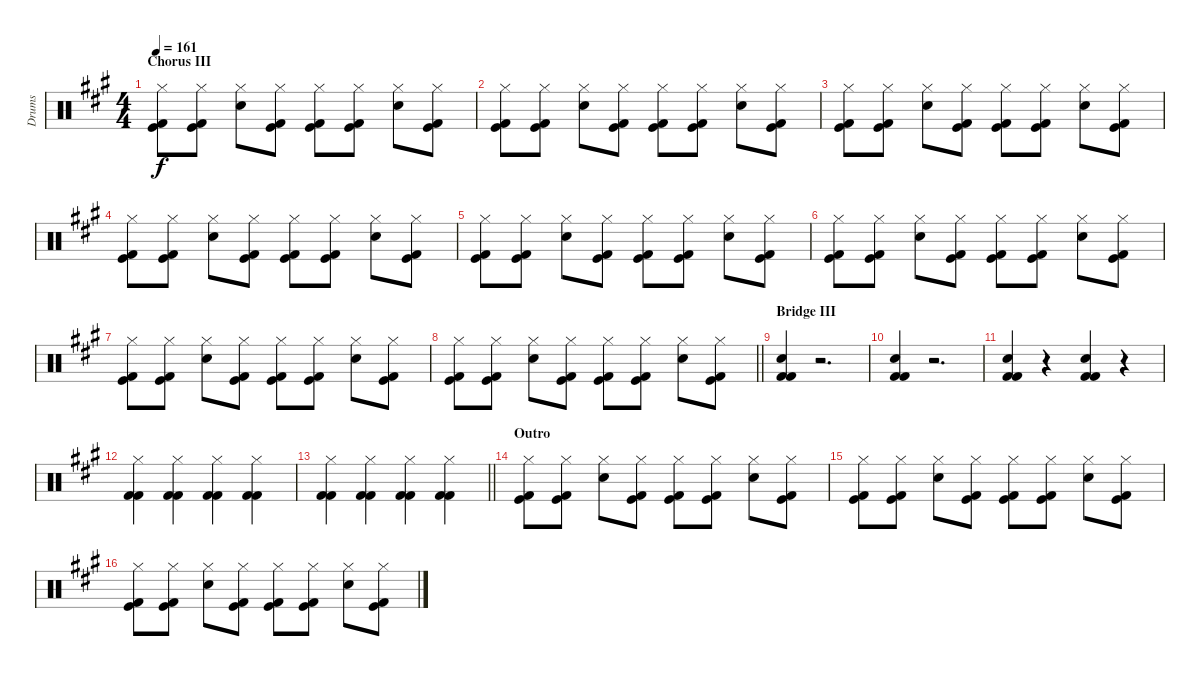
\track ("Drums" "Drums") {instrument percussion}
\staff {score}
\articulation defaults
\ts (4 4)
\section ("" "Chorus III")
\tempo 161
\clef neutral
\ks a
("Hi-Hat (closed)" "Kick (hit)" "Kick (hit) 2").8{dy f} ("Hi-Hat (closed)" "Kick (hit)" "Kick (hit) 2").8 ("Hi-Hat (closed)" "Snare (hit) 2").8 ("Hi-Hat (closed)" "Kick (hit)" "Kick (hit) 2").8 ("Hi-Hat (closed)" "Kick (hit)" "Kick (hit) 2").8 ("Hi-Hat (closed)" "Kick (hit)" "Kick (hit) 2").8 ("Hi-Hat (closed)" "Snare (hit) 2").8 ("Hi-Hat (closed)" "Kick (hit)" "Kick (hit) 2").8 |
("Hi-Hat (closed)" "Kick (hit)" "Kick (hit) 2").8 ("Hi-Hat (closed)" "Kick (hit)" "Kick (hit) 2").8 ("Hi-Hat (closed)" "Snare (hit) 2").8 ("Hi-Hat (closed)" "Kick (hit)" "Kick (hit) 2").8 ("Hi-Hat (closed)" "Kick (hit)" "Kick (hit) 2").8 ("Hi-Hat (closed)" "Kick (hit)" "Kick (hit) 2").8 ("Hi-Hat (closed)" "Snare (hit) 2").8 ("Hi-Hat (closed)" "Kick (hit)" "Kick (hit) 2").8 |
("Hi-Hat (closed)" "Kick (hit)" "Kick (hit) 2").8 ("Hi-Hat (closed)" "Kick (hit)" "Kick (hit) 2").8 ("Hi-Hat (closed)" "Snare (hit) 2").8 ("Hi-Hat (closed)" "Kick (hit)" "Kick (hit) 2").8 ("Hi-Hat (closed)" "Kick (hit)" "Kick (hit) 2").8 ("Hi-Hat (closed)" "Kick (hit)" "Kick (hit) 2").8 ("Hi-Hat (closed)" "Snare (hit) 2").8 ("Hi-Hat (closed)" "Kick (hit)" "Kick (hit) 2").8 |
("Hi-Hat (closed)" "Kick (hit)" "Kick (hit) 2").8 ("Hi-Hat (closed)" "Kick (hit)" "Kick (hit) 2").8 ("Hi-Hat (closed)" "Snare (hit) 2").8 ("Hi-Hat (closed)" "Kick (hit)" "Kick (hit) 2").8 ("Hi-Hat (closed)" "Kick (hit)" "Kick (hit) 2").8 ("Hi-Hat (closed)" "Kick (hit)" "Kick (hit) 2").8 ("Hi-Hat (closed)" "Snare (hit) 2").8 ("Hi-Hat (closed)" "Kick (hit)" "Kick (hit) 2").8 |
("Hi-Hat (closed)" "Kick (hit)" "Kick (hit) 2").8 ("Hi-Hat (closed)" "Kick (hit)" "Kick (hit) 2").8 ("Hi-Hat (closed)" "Snare (hit) 2").8 ("Hi-Hat (closed)" "Kick (hit)" "Kick (hit) 2").8 ("Hi-Hat (closed)" "Kick (hit)" "Kick (hit) 2").8 ("Hi-Hat (closed)" "Kick (hit)" "Kick (hit) 2").8 ("Hi-Hat (closed)" "Snare (hit) 2").8 ("Hi-Hat (closed)" "Kick (hit)" "Kick (hit) 2").8 |
("Hi-Hat (closed)" "Kick (hit)" "Kick (hit) 2").8 ("Hi-Hat (closed)" "Kick (hit)" "Kick (hit) 2").8 ("Hi-Hat (closed)" "Snare (hit) 2").8 ("Hi-Hat (closed)" "Kick (hit)" "Kick (hit) 2").8 ("Hi-Hat (closed)" "Kick (hit)" "Kick (hit) 2").8 ("Hi-Hat (closed)" "Kick (hit)" "Kick (hit) 2").8 ("Hi-Hat (closed)" "Snare (hit) 2").8 ("Hi-Hat (closed)" "Kick (hit)" "Kick (hit) 2").8 |
("Hi-Hat (closed)" "Kick (hit)" "Kick (hit) 2").8 ("Hi-Hat (closed)" "Kick (hit)" "Kick (hit) 2").8 ("Hi-Hat (closed)" "Snare (hit) 2").8 ("Hi-Hat (closed)" "Kick (hit)" "Kick (hit) 2").8 ("Hi-Hat (closed)" "Kick (hit)" "Kick (hit) 2").8 ("Hi-Hat (closed)" "Kick (hit)" "Kick (hit) 2").8 ("Hi-Hat (closed)" "Snare (hit) 2").8 ("Hi-Hat (closed)" "Kick (hit)" "Kick (hit) 2").8 |
\barLineRight lightlight
("Hi-Hat (closed)" "Kick (hit)" "Kick (hit) 2").8 ("Hi-Hat (closed)" "Kick (hit)" "Kick (hit) 2").8 ("Hi-Hat (closed)" "Snare (hit) 2").8 ("Hi-Hat (closed)" "Kick (hit)" "Kick (hit) 2").8 ("Hi-Hat (closed)" "Kick (hit)" "Kick (hit) 2").8 ("Hi-Hat (closed)" "Kick (hit)" "Kick (hit) 2").8 ("Hi-Hat (closed)" "Snare (hit) 2").8 ("Hi-Hat (closed)" "Kick (hit)" "Kick (hit) 2").8 |
\section ("" "Bridge III")
("Snare (hit) 2" "Kick (hit) 2" "Kick (hit) 2").4 r.2{d} |
("Snare (hit) 2" "Kick (hit) 2" "Kick (hit) 2").4 r.2{d} |
("Snare (hit) 2" "Kick (hit) 2" "Kick (hit) 2").4 r.4 ("Snare (hit) 2" "Kick (hit) 2" "Kick (hit) 2").4 r.4 |
("Hi-Hat (closed)" "Kick (hit) 2" "Kick (hit) 2").4 ("Hi-Hat (closed)" "Kick (hit) 2" "Kick (hit) 2").4 ("Hi-Hat (closed)" "Kick (hit) 2" "Kick (hit) 2").4 ("Hi-Hat (closed)" "Kick (hit) 2" "Kick (hit) 2").4 |
\barLineRight lightlight
("Hi-Hat (closed)" "Kick (hit) 2" "Kick (hit) 2").4 ("Hi-Hat (closed)" "Kick (hit) 2" "Kick (hit) 2").4 ("Hi-Hat (closed)" "Kick (hit) 2" "Kick (hit) 2").4 ("Hi-Hat (closed)" "Kick (hit) 2" "Kick (hit) 2").4 |
\section ("" "Outro")
("Hi-Hat (closed)" "Kick (hit)" "Kick (hit) 2").8 ("Hi-Hat (closed)" "Kick (hit)" "Kick (hit) 2").8 ("Hi-Hat (closed)" "Snare (hit) 2").8 ("Hi-Hat (closed)" "Kick (hit)" "Kick (hit) 2").8 ("Hi-Hat (closed)" "Kick (hit)" "Kick (hit) 2").8 ("Hi-Hat (closed)" "Kick (hit)" "Kick (hit) 2").8 ("Hi-Hat (closed)" "Snare (hit) 2").8 ("Hi-Hat (closed)" "Kick (hit)" "Kick (hit) 2").8 |
("Hi-Hat (closed)" "Kick (hit)" "Kick (hit) 2").8 ("Hi-Hat (closed)" "Kick (hit)" "Kick (hit) 2").8 ("Hi-Hat (closed)" "Snare (hit) 2").8 ("Hi-Hat (closed)" "Kick (hit)" "Kick (hit) 2").8 ("Hi-Hat (closed)" "Kick (hit)" "Kick (hit) 2").8 ("Hi-Hat (closed)" "Kick (hit)" "Kick (hit) 2").8 ("Hi-Hat (closed)" "Snare (hit) 2").8 ("Hi-Hat (closed)" "Kick (hit)" "Kick (hit) 2").8 |
("Hi-Hat (closed)" "Kick (hit)" "Kick (hit) 2").8 ("Hi-Hat (closed)" "Kick (hit)" "Kick (hit) 2").8 ("Hi-Hat (closed)" "Snare (hit) 2").8 ("Hi-Hat (closed)" "Kick (hit)" "Kick (hit) 2").8 ("Hi-Hat (closed)" "Kick (hit)" "Kick (hit) 2").8 ("Hi-Hat (closed)" "Kick (hit)" "Kick (hit) 2").8 ("Hi-Hat (closed)" "Snare (hit) 2").8 ("Hi-Hat (closed)" "Kick (hit)" "Kick (hit) 2").8
